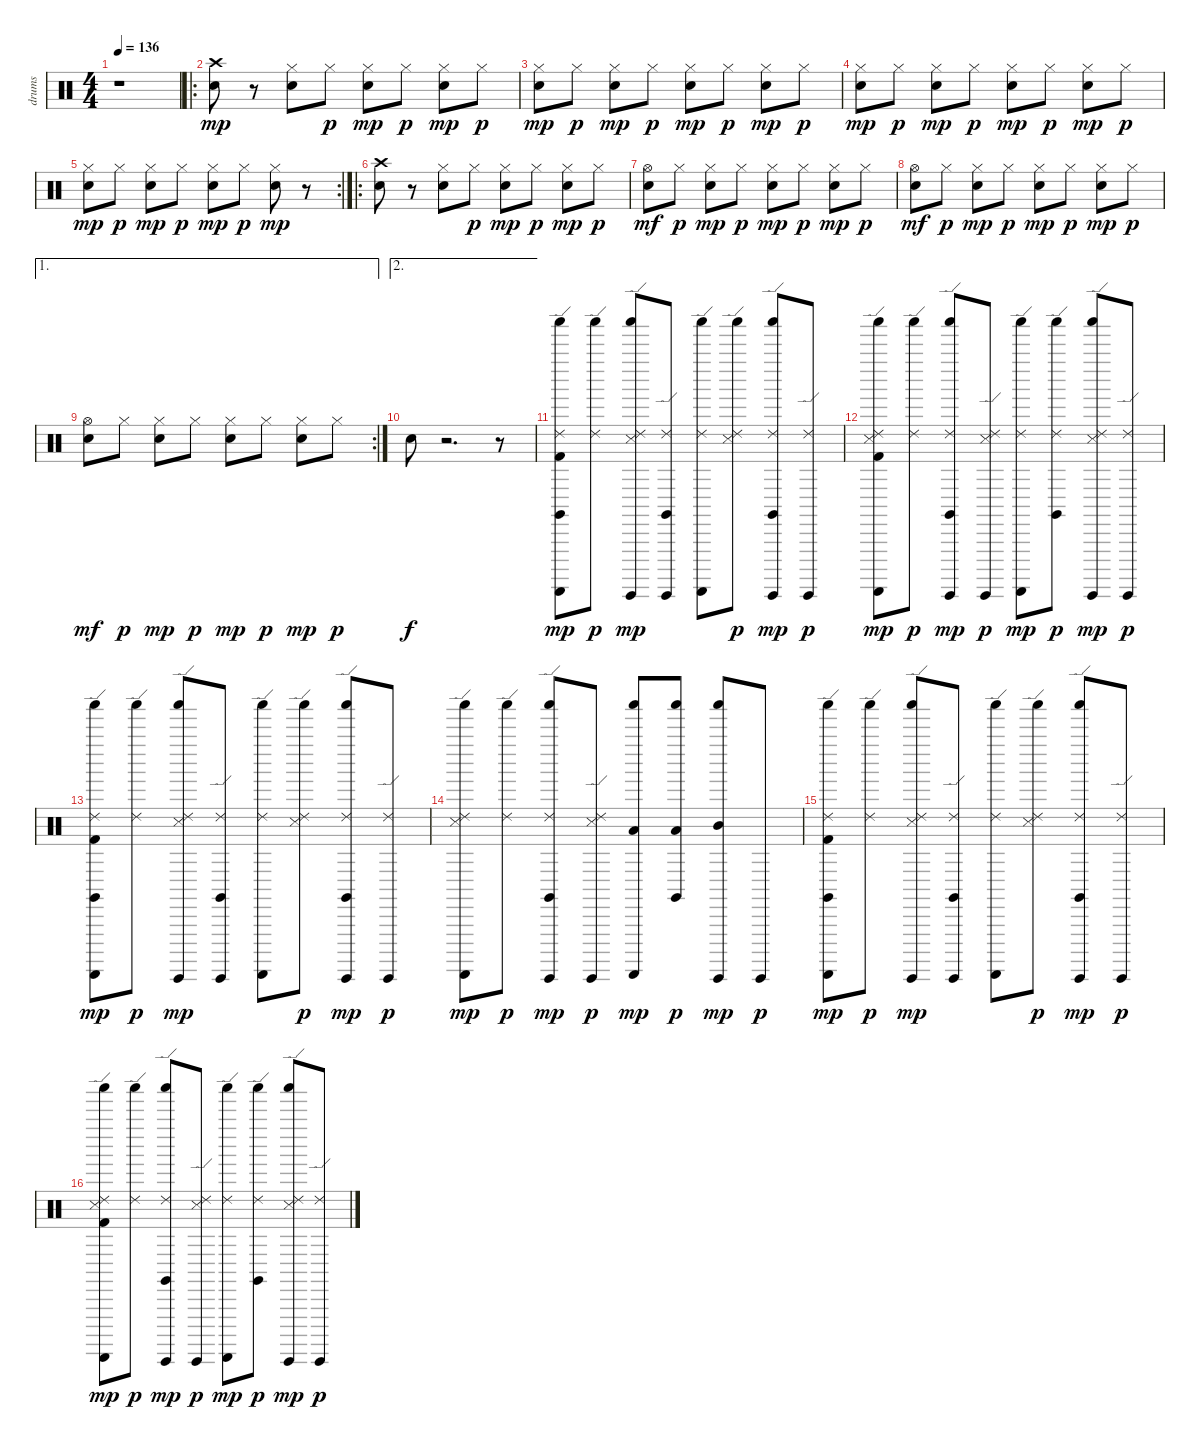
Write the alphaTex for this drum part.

\track ("drums" "drums") {instrument percussion}
\staff {score}
\articulation defaults
\ts (4 4)
\tempo 136
\clef neutral
\ks c
r.1{dy mp} |
\ro
("Snare (hit) 2" "Crash high (hit)").8 r.8 ("Snare (hit) 2" "Hi-Hat (closed)").8 "Hi-Hat (closed)".8{dy p} ("Snare (hit) 2" "Hi-Hat (closed)").8{dy mp} "Hi-Hat (closed)".8{dy p} ("Snare (hit) 2" "Hi-Hat (closed)").8{dy mp} "Hi-Hat (closed)".8{dy p} |
("Snare (hit) 2" "Hi-Hat (closed)").8{dy mp} "Hi-Hat (closed)".8{dy p} ("Snare (hit) 2" "Hi-Hat (closed)").8{dy mp} "Hi-Hat (closed)".8{dy p} ("Snare (hit) 2" "Hi-Hat (closed)").8{dy mp} "Hi-Hat (closed)".8{dy p} ("Snare (hit) 2" "Hi-Hat (closed)").8{dy mp} "Hi-Hat (closed)".8{dy p} |
("Snare (hit) 2" "Hi-Hat (closed)").8{dy mp} "Hi-Hat (closed)".8{dy p} ("Snare (hit) 2" "Hi-Hat (closed)").8{dy mp} "Hi-Hat (closed)".8{dy p} ("Snare (hit) 2" "Hi-Hat (closed)").8{dy mp} "Hi-Hat (closed)".8{dy p} ("Snare (hit) 2" "Hi-Hat (closed)").8{dy mp} "Hi-Hat (closed)".8{dy p} |
\rc 2
("Snare (hit) 2" "Hi-Hat (closed)").8{dy mp} "Hi-Hat (closed)".8{dy p} ("Snare (hit) 2" "Hi-Hat (closed)").8{dy mp} "Hi-Hat (closed)".8{dy p} ("Snare (hit) 2" "Hi-Hat (closed)").8{dy mp} "Hi-Hat (closed)".8{dy p} ("Snare (hit) 2" "Hi-Hat (closed)").8{dy mp} r.8 |
\ro
("Snare (hit) 2" "Crash high (hit)").8 r.8 ("Snare (hit) 2" "Hi-Hat (closed)").8 "Hi-Hat (closed)".8{dy p} ("Snare (hit) 2" "Hi-Hat (closed)").8{dy mp} "Hi-Hat (closed)".8{dy p} ("Snare (hit) 2" "Hi-Hat (closed)").8{dy mp} "Hi-Hat (closed)".8{dy p} |
("Snare (hit) 2" "Hi-Hat (open)").8{dy mf} "Hi-Hat (closed)".8{dy p} ("Snare (hit) 2" "Hi-Hat (closed)").8{dy mp} "Hi-Hat (closed)".8{dy p} ("Snare (hit) 2" "Hi-Hat (closed)").8{dy mp} "Hi-Hat (closed)".8{dy p} ("Snare (hit) 2" "Hi-Hat (closed)").8{dy mp} "Hi-Hat (closed)".8{dy p} |
("Snare (hit) 2" "Hi-Hat (open)").8{dy mf} "Hi-Hat (closed)".8{dy p} ("Snare (hit) 2" "Hi-Hat (closed)").8{dy mp} "Hi-Hat (closed)".8{dy p} ("Snare (hit) 2" "Hi-Hat (closed)").8{dy mp} "Hi-Hat (closed)".8{dy p} ("Snare (hit) 2" "Hi-Hat (closed)").8{dy mp} "Hi-Hat (closed)".8{dy p} |
\ae 1
\rc 2
("Snare (hit) 2" "Hi-Hat (open)").8{dy mf} "Hi-Hat (closed)".8{dy p} ("Snare (hit) 2" "Hi-Hat (closed)").8{dy mp} "Hi-Hat (closed)".8{dy p} ("Snare (hit) 2" "Hi-Hat (closed)").8{dy mp} "Hi-Hat (closed)".8{dy p} ("Snare (hit) 2" "Hi-Hat (closed)").8{dy mp} "Hi-Hat (closed)".8{dy p} |
\ae 2 "Snare (hit) 2".8{dy f}
r.2{d} r.8 |
("Kick (hit) 2" "Ride (edge) 2" "Guiro (scrap-return)" "Claves (hit)" "Shaker (hit)").8{dy mp} ("Ride (edge) 2" "Shaker (hit)").8{dy p} ("Snare (side stick) 3" "Ride (edge) 2" "Guiro (hit)" "Shaker (hit)").8{dy mp} ("Ride (edge) 2" "Guiro (hit)" "Claves (hit)").8 ("Ride (edge) 2" "Guiro (scrap-return)" "Shaker (hit)").8 ("Snare (side stick) 3" "Ride (edge) 2" "Shaker (hit)").8{dy p} ("Ride (edge) 2" "Guiro (hit)" "Claves (hit)" "Shaker (hit)").8{dy mp} ("Ride (edge) 2" "Guiro (hit)").8{dy p} |
("Kick (hit) 2" "Snare (side stick) 3" "Ride (edge) 2" "Guiro (scrap-return)" "Shaker (hit)").8{dy mp} ("Ride (edge) 2" "Shaker (hit)").8{dy p} ("Ride (edge) 2" "Guiro (hit)" "Claves (hit)" "Shaker (hit)").8{dy mp} ("Snare (side stick) 3" "Ride (edge) 2" "Guiro (hit)").8{dy p} ("Ride (edge) 2" "Guiro (scrap-return)" "Shaker (hit)").8{dy mp} ("Ride (edge) 2" "Claves (hit)" "Shaker (hit)").8{dy p} ("Snare (side stick) 3" "Ride (edge) 2" "Guiro (hit)" "Shaker (hit)").8{dy mp} ("Ride (edge) 2" "Guiro (hit)").8{dy p} |
("Kick (hit) 2" "Ride (edge) 2" "Guiro (scrap-return)" "Claves (hit)" "Shaker (hit)").8{dy mp} ("Ride (edge) 2" "Shaker (hit)").8{dy p} ("Snare (side stick) 3" "Ride (edge) 2" "Guiro (hit)" "Shaker (hit)").8{dy mp} ("Ride (edge) 2" "Guiro (hit)" "Claves (hit)").8 ("Ride (edge) 2" "Guiro (scrap-return)" "Shaker (hit)").8 ("Snare (side stick) 3" "Ride (edge) 2" "Shaker (hit)").8{dy p} ("Ride (edge) 2" "Guiro (hit)" "Claves (hit)" "Shaker (hit)").8{dy mp} ("Ride (edge) 2" "Guiro (hit)").8{dy p} |
("Snare (side stick) 3" "Ride (edge) 2" "Guiro (scrap-return)" "Shaker (hit)").8{dy mp} ("Ride (edge) 2" "Shaker (hit)").8{dy p} ("Ride (edge) 2" "Guiro (hit)" "Claves (hit)" "Shaker (hit)").8{dy mp} ("Snare (side stick) 3" "Ride (edge) 2" "Guiro (hit)").8{dy p} ("Low Tom (hit)" "Guiro (scrap-return)" "Shaker (hit)").8{dy mp} ("Low Tom (hit)" "Claves (hit)" "Shaker (hit)").8{dy p} ("Mid Tom (hit)" "Guiro (hit)" "Shaker (hit)").8{dy mp} "Guiro (hit)".8{dy p} |
("Kick (hit) 2" "Ride (edge) 2" "Guiro (scrap-return)" "Claves (hit)" "Shaker (hit)").8{dy mp} ("Ride (edge) 2" "Shaker (hit)").8{dy p} ("Snare (side stick) 3" "Ride (edge) 2" "Guiro (hit)" "Shaker (hit)").8{dy mp} ("Ride (edge) 2" "Guiro (hit)" "Claves (hit)").8 ("Ride (edge) 2" "Guiro (scrap-return)" "Shaker (hit)").8 ("Snare (side stick) 3" "Ride (edge) 2" "Shaker (hit)").8{dy p} ("Ride (edge) 2" "Guiro (hit)" "Claves (hit)" "Shaker (hit)").8{dy mp} ("Ride (edge) 2" "Guiro (hit)").8{dy p} |
("Kick (hit) 2" "Snare (side stick) 3" "Ride (edge) 2" "Guiro (scrap-return)" "Shaker (hit)").8{dy mp} ("Ride (edge) 2" "Shaker (hit)").8{dy p} ("Ride (edge) 2" "Guiro (hit)" "Claves (hit)" "Shaker (hit)").8{dy mp} ("Snare (side stick) 3" "Ride (edge) 2" "Guiro (hit)").8{dy p} ("Ride (edge) 2" "Guiro (scrap-return)" "Shaker (hit)").8{dy mp} ("Ride (edge) 2" "Claves (hit)" "Shaker (hit)").8{dy p} ("Snare (side stick) 3" "Ride (edge) 2" "Guiro (hit)" "Shaker (hit)").8{dy mp} ("Ride (edge) 2" "Guiro (hit)").8{dy p}
